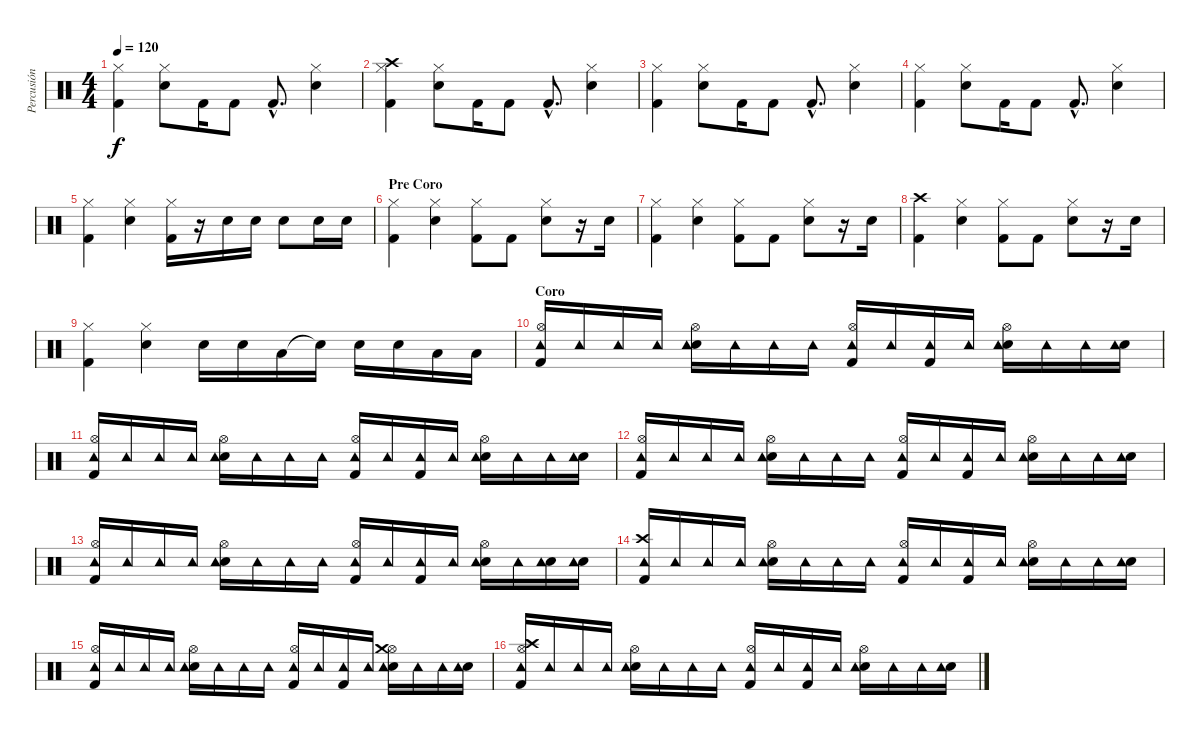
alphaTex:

\track ("Percusión" "Percusión") {instrument percussion}
\staff {score}
\articulation defaults
\ts (4 4)
\tempo 120
\clef neutral
\ks c
("Hi-Hat (closed)" "Kick (hit) 2").4{dy f} ("Hi-Hat (closed)" "Electric Snare (hit)").8 "Kick (hit) 2".16 "Kick (hit) 2".8 "Kick (hit) 2"{hac}.8{d} ("Hi-Hat (closed)" "Electric Snare (hit)").4 |
("Hi-Hat (closed)" "Kick (hit) 2" "Crash high (hit)").4 ("Hi-Hat (closed)" "Electric Snare (hit)").8 "Kick (hit) 2".16 "Kick (hit) 2".8 "Kick (hit) 2"{hac}.8{d} ("Hi-Hat (closed)" "Electric Snare (hit)").4 |
("Hi-Hat (closed)" "Kick (hit) 2").4 ("Hi-Hat (closed)" "Electric Snare (hit)").8 "Kick (hit) 2".16 "Kick (hit) 2".8 "Kick (hit) 2"{hac}.8{d} ("Hi-Hat (closed)" "Electric Snare (hit)").4 |
("Hi-Hat (closed)" "Kick (hit) 2").4 ("Hi-Hat (closed)" "Electric Snare (hit)").8 "Kick (hit) 2".16 "Kick (hit) 2".8 "Kick (hit) 2"{hac}.8{d} ("Hi-Hat (closed)" "Electric Snare (hit)").4 |
("Hi-Hat (closed)" "Kick (hit) 2").4 ("Hi-Hat (closed)" "Electric Snare (hit)").4 ("Hi-Hat (closed)" "Kick (hit) 2").16 r.16 "Electric Snare (hit)".16 "Electric Snare (hit)".16 "Electric Snare (hit)".8 "Electric Snare (hit)".16 "Electric Snare (hit)".16 |
\section ("" "Pre Coro")
("Hi-Hat (closed)" "Kick (hit) 2").4 ("Hi-Hat (closed)" "Electric Snare (hit)").4 ("Hi-Hat (closed)" "Kick (hit) 2").8 "Kick (hit) 2".8 ("Hi-Hat (closed)" "Electric Snare (hit)").8 r.16 "Electric Snare (hit)".16 |
("Hi-Hat (closed)" "Kick (hit) 2").4 ("Hi-Hat (closed)" "Electric Snare (hit)").4 ("Hi-Hat (closed)" "Kick (hit) 2").8 "Kick (hit) 2".8 ("Hi-Hat (closed)" "Electric Snare (hit)").8 r.16 "Electric Snare (hit)".16 |
("Crash high (hit)" "Kick (hit) 2").4 ("Hi-Hat (closed)" "Electric Snare (hit)").4 ("Hi-Hat (closed)" "Kick (hit) 2").8 "Kick (hit) 2".8 ("Hi-Hat (closed)" "Electric Snare (hit)").8 r.16 "Electric Snare (hit)".16 |
("Hi-Hat (closed)" "Kick (hit) 2").4 ("Hi-Hat (closed)" "Electric Snare (hit)").4 "Electric Snare (hit)".16 "Electric Snare (hit)".16 "Low Tom (hit)".16 "Snare (hit)"{t}.16 "Electric Snare (hit)".16 "Electric Snare (hit)".16 "Low Tom (hit)".16 "Low Tom (hit)".16 |
\section ("" "Coro")
("Hi-Hat (open)" "Kick (hit) 2" "Tambourine (hit)").16 "Tambourine (hit)".16 "Tambourine (hit)".16 "Tambourine (hit)".16 ("Hi-Hat (open)" "Electric Snare (hit)" "Tambourine (hit)").16 "Tambourine (hit)".16 "Tambourine (hit)".16 "Tambourine (hit)".16 ("Hi-Hat (open)" "Kick (hit) 2" "Tambourine (hit)").16 "Tambourine (hit)".16 ("Kick (hit) 2" "Tambourine (hit)").16 "Tambourine (hit)".16 ("Hi-Hat (open)" "Electric Snare (hit)" "Tambourine (hit)").16 "Tambourine (hit)".16 "Tambourine (hit)".16 ("Electric Snare (hit)" "Tambourine (hit)").16 |
("Hi-Hat (open)" "Kick (hit) 2" "Tambourine (hit)").16 "Tambourine (hit)".16 "Tambourine (hit)".16 "Tambourine (hit)".16 ("Hi-Hat (open)" "Electric Snare (hit)" "Tambourine (hit)").16 "Tambourine (hit)".16 "Tambourine (hit)".16 "Tambourine (hit)".16 ("Hi-Hat (open)" "Kick (hit) 2" "Tambourine (hit)").16 "Tambourine (hit)".16 ("Kick (hit) 2" "Tambourine (hit)").16 "Tambourine (hit)".16 ("Hi-Hat (open)" "Electric Snare (hit)" "Tambourine (hit)").16 "Tambourine (hit)".16 "Tambourine (hit)".16 ("Electric Snare (hit)" "Tambourine (hit)").16 |
("Hi-Hat (open)" "Kick (hit) 2" "Tambourine (hit)").16 "Tambourine (hit)".16 "Tambourine (hit)".16 "Tambourine (hit)".16 ("Hi-Hat (open)" "Electric Snare (hit)" "Tambourine (hit)").16 "Tambourine (hit)".16 "Tambourine (hit)".16 "Tambourine (hit)".16 ("Hi-Hat (open)" "Kick (hit) 2" "Tambourine (hit)").16 "Tambourine (hit)".16 ("Kick (hit) 2" "Tambourine (hit)").16 "Tambourine (hit)".16 ("Hi-Hat (open)" "Electric Snare (hit)" "Tambourine (hit)").16 "Tambourine (hit)".16 "Tambourine (hit)".16 ("Electric Snare (hit)" "Tambourine (hit)").16 |
("Hi-Hat (open)" "Kick (hit) 2" "Tambourine (hit)").16 "Tambourine (hit)".16 "Tambourine (hit)".16 "Tambourine (hit)".16 ("Hi-Hat (open)" "Electric Snare (hit)" "Tambourine (hit)").16 "Tambourine (hit)".16 "Tambourine (hit)".16 "Tambourine (hit)".16 ("Hi-Hat (open)" "Kick (hit) 2" "Tambourine (hit)").16 "Tambourine (hit)".16 ("Kick (hit) 2" "Tambourine (hit)").16 "Tambourine (hit)".16 ("Hi-Hat (open)" "Electric Snare (hit)" "Tambourine (hit)").16 "Tambourine (hit)".16 ("Electric Snare (hit)" "Tambourine (hit)").16 ("Electric Snare (hit)" "Tambourine (hit)").16 |
("Crash high (hit)" "Kick (hit) 2" "Tambourine (hit)").16 "Tambourine (hit)".16 "Tambourine (hit)".16 "Tambourine (hit)".16 ("Hi-Hat (open)" "Electric Snare (hit)" "Tambourine (hit)").16 "Tambourine (hit)".16 "Tambourine (hit)".16 "Tambourine (hit)".16 ("Hi-Hat (open)" "Kick (hit) 2" "Tambourine (hit)").16 "Tambourine (hit)".16 ("Kick (hit) 2" "Tambourine (hit)").16 "Tambourine (hit)".16 ("Hi-Hat (open)" "Electric Snare (hit)" "Tambourine (hit)").16 "Tambourine (hit)".16 "Tambourine (hit)".16 ("Electric Snare (hit)" "Tambourine (hit)").16 |
("Hi-Hat (open)" "Kick (hit) 2" "Tambourine (hit)").16 "Tambourine (hit)".16 "Tambourine (hit)".16 "Tambourine (hit)".16 ("Hi-Hat (open)" "Electric Snare (hit)" "Tambourine (hit)").16 "Tambourine (hit)".16 "Tambourine (hit)".16 "Tambourine (hit)".16 ("Hi-Hat (open)" "Kick (hit) 2" "Tambourine (hit)").16 "Tambourine (hit)".16 ("Kick (hit) 2" "Tambourine (hit)").16 "Tambourine (hit)".16 ("Hi-Hat (open)" "Crash medium (hit)" "Electric Snare (hit)" "Tambourine (hit)").16 "Tambourine (hit)".16 "Tambourine (hit)".16 ("Electric Snare (hit)" "Tambourine (hit)").16 |
("Hi-Hat (open)" "Crash high (hit)" "Kick (hit) 2" "Tambourine (hit)").16 "Tambourine (hit)".16 "Tambourine (hit)".16 "Tambourine (hit)".16 ("Hi-Hat (open)" "Electric Snare (hit)" "Tambourine (hit)").16 "Tambourine (hit)".16 "Tambourine (hit)".16 "Tambourine (hit)".16 ("Hi-Hat (open)" "Kick (hit) 2" "Tambourine (hit)").16 "Tambourine (hit)".16 ("Kick (hit) 2" "Tambourine (hit)").16 "Tambourine (hit)".16 ("Hi-Hat (open)" "Electric Snare (hit)" "Tambourine (hit)").16 "Tambourine (hit)".16 "Tambourine (hit)".16 ("Electric Snare (hit)" "Tambourine (hit)").16
